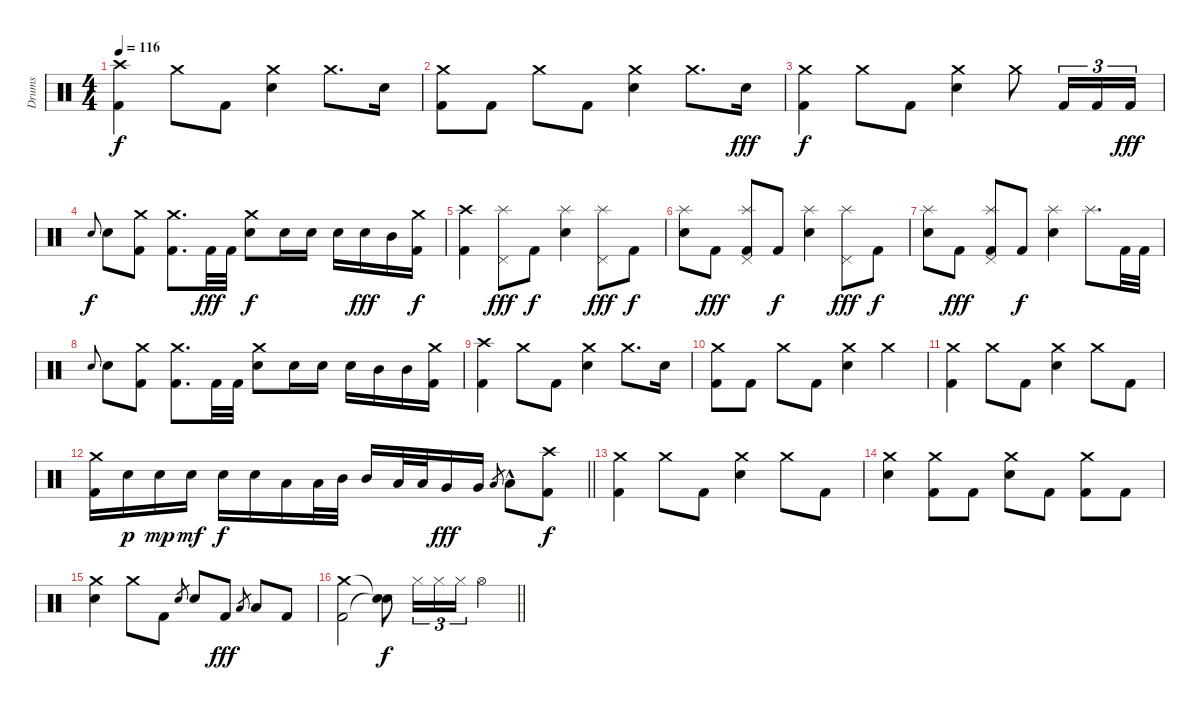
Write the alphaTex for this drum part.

\track ("Drums" "Drums") {instrument percussion}
\staff {score}
\articulation defaults
\ts (4 4)
\tempo 116
\clef neutral
\ks c
("Crash high (hit)" "Kick (hit) 2").4{dy f} "Crash medium (hit)".8 "Kick (hit) 2".8 ("Crash medium (hit)" "Electric Snare (hit)").4 "Crash medium (hit)".8{d} "Snare (hit) 2".16 |
("Crash medium (hit)" "Kick (hit) 2").8 "Kick (hit) 2".8 "Crash medium (hit)".8 "Kick (hit) 2".8 ("Crash medium (hit)" "Electric Snare (hit)").4 "Crash medium (hit)".8{d} "Electric Snare (hit)".16{dy fff} |
("Crash medium (hit)" "Kick (hit) 2").4{dy f} "Crash medium (hit)".8 "Kick (hit) 2".8 ("Crash medium (hit)" "Electric Snare (hit)").4 "Crash medium (hit)".8 "Kick (hit) 2".16{tu (3 2)} "Kick (hit) 2".16{tu (3 2)} "Kick (hit) 2".16{tu (3 2) dy fff} |
"Electric Snare (hit)".8{gr onbeat dy f} "Electric Snare (hit)".8 ("Crash medium (hit)" "Kick (hit) 2").8 ("Crash medium (hit)" "Kick (hit) 2").8{d} "Kick (hit) 2".32{dy fff} "Kick (hit) 2".32 ("Crash medium (hit)" "Electric Snare (hit)").8{dy f} "Electric Snare (hit)".16 "Electric Snare (hit)".16 "Electric Snare (hit)".16 "Electric Snare (hit)".16{dy fff} "Mid Tom (hit)".16 ("Crash medium (hit)" "Kick (hit) 2").16{dy f} |
("Crash high (hit)" "Kick (hit) 2").4 ("Splash (hit)" "Pedal Hi-Hat (hit)").8{dy fff} "Kick (hit) 2".8{dy f} ("Splash (hit)" "Electric Snare (hit)").4 ("Splash (hit)" "Pedal Hi-Hat (hit)").8{dy fff} "Kick (hit) 2".8{dy f} |
("Splash (hit)" "Electric Snare (hit)").8 "Kick (hit) 2".8{dy fff} ("Splash (hit)" "Pedal Hi-Hat (hit)" "Kick (hit) 2").8 "Kick (hit) 2".8{dy f} ("Splash (hit)" "Electric Snare (hit)").4 ("Splash (hit)" "Pedal Hi-Hat (hit)").8{dy fff} "Kick (hit) 2".8{dy f} |
("Splash (hit)" "Electric Snare (hit)").8 "Kick (hit) 2".8{dy fff} ("Splash (hit)" "Pedal Hi-Hat (hit)" "Kick (hit) 2").8 "Kick (hit) 2".8{dy f} ("Splash (hit)" "Electric Snare (hit)").4 "Splash (hit)".8{d} "Kick (hit) 2".32 "Kick (hit) 2".32 |
"Electric Snare (hit)".8{gr onbeat} "Electric Snare (hit)".8 ("Crash medium (hit)" "Kick (hit) 2").8 ("Crash medium (hit)" "Kick (hit) 2").8{d} "Kick (hit) 2".32 "Kick (hit) 2".32 ("Crash medium (hit)" "Electric Snare (hit)").8 "Electric Snare (hit)".16 "Electric Snare (hit)".16 "Electric Snare (hit)".16 "Mid Tom (hit)".16 "Mid Tom (hit)".16 ("Crash medium (hit)" "Kick (hit) 2").16 |
("Crash high (hit)" "Kick (hit) 2").4 "Crash medium (hit)".8 "Kick (hit) 2".8 ("Crash medium (hit)" "Electric Snare (hit)").4 "Crash medium (hit)".8{d} "Electric Snare (hit)".16 |
("Crash medium (hit)" "Kick (hit) 2").8 "Kick (hit) 2".8 "Crash medium (hit)".8 "Kick (hit) 2".8 ("Crash medium (hit)" "Electric Snare (hit)").4 "Crash medium (hit)".4 |
("Crash medium (hit)" "Kick (hit) 2").4 "Crash medium (hit)".8 "Kick (hit) 2".8 ("Crash medium (hit)" "Electric Snare (hit)").4 "Crash medium (hit)".8 "Kick (hit) 2".8 |
\barLineRight lightlight
("Crash medium (hit)" "Kick (hit) 2").16 "Electric Snare (hit)".16{dy p} "Electric Snare (hit)".16{dy mp} "Electric Snare (hit)".16{dy mf} "Electric Snare (hit)".16{dy f} "Electric Snare (hit)".16 "Low Floor Tom (hit)".16 "Low Floor Tom (hit)".32 "Mid Tom (hit)".32 "Mid Tom (hit)".16 "Low Tom (hit)".32 "Low Tom (hit)".32 "Very Low Tom (hit)".16{dy fff} "Very Low Tom (hit)".16 "Low Floor Tom (hit)".8{gr} "Low Floor Tom (hit)"{hac}.8 ("Crash high (hit)" "Kick (hit) 2").8{dy f} |
("Crash medium (hit)" "Kick (hit) 2").4 "Crash medium (hit)".8 "Kick (hit) 2".8 ("Crash medium (hit)" "Electric Snare (hit)").4 "Crash medium (hit)".8 "Kick (hit) 2".8 |
("Crash medium (hit)" "Electric Snare (hit)").4 ("Crash medium (hit)" "Kick (hit) 2").8 "Kick (hit) 2".8 ("Crash medium (hit)" "Electric Snare (hit)").8 "Kick (hit) 2".8 ("Crash medium (hit)" "Kick (hit) 2").8 "Kick (hit) 2".8 |
("Crash medium (hit)" "Electric Snare (hit)").4 "Crash medium (hit)".8 "Kick (hit) 2".8 "Electric Snare (hit)".8{gr} "Electric Snare (hit)".8 "Kick (hit) 2".8{dy fff} "Low Tom (hit)".8{gr} "Low Tom (hit)".8 "Kick (hit) 2".8 |
\barLineRight lightlight
("Crash medium (hit)" "Kick (hit) 2").2 ("Snare (hit)"{t} "Snare (hit)"{t}).8{dy f} "Hi-Hat (closed)".16{tu (3 2)} "Hi-Hat (closed)".16{tu (3 2)} "Hi-Hat (closed)".16{tu (3 2)} "Hi-Hat (open)".4
